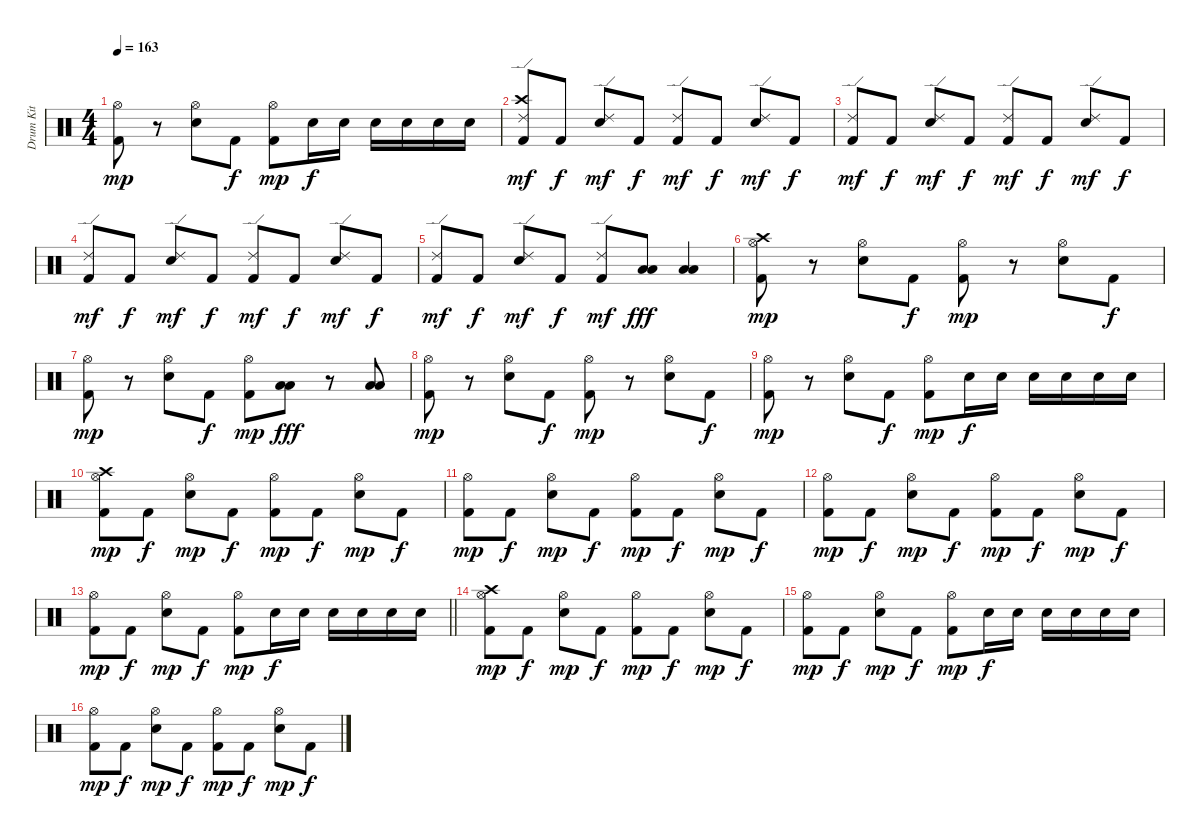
\track ("Drum Kit" "Drum Kit") {instrument percussion}
\staff {score}
\articulation defaults
\ts (4 4)
\tempo 163
\clef neutral
\ks c
("Hi-Hat (open)" "Kick (hit) 2").8{dy mp} r.8 ("Hi-Hat (open)" "Electric Snare (hit)").8 "Kick (hit) 2".8{dy f} ("Hi-Hat (open)" "Kick (hit) 2").8{dy mp} "Electric Snare (hit)".16{dy f} "Electric Snare (hit)".16 "Electric Snare (hit)".16 "Electric Snare (hit)".16 "Electric Snare (hit)".16 "Electric Snare (hit)".16 |
("Crash high (hit)" "Ride (edge) 2" "Kick (hit) 2").8{dy mf} "Kick (hit) 2".8{dy f} ("Ride (edge) 2" "Electric Snare (hit)").8{dy mf} "Kick (hit) 2".8{dy f} ("Ride (edge) 2" "Kick (hit) 2").8{dy mf} "Kick (hit) 2".8{dy f} ("Ride (edge) 2" "Electric Snare (hit)").8{dy mf} "Kick (hit) 2".8{dy f} |
("Ride (edge) 2" "Kick (hit) 2").8{dy mf} "Kick (hit) 2".8{dy f} ("Ride (edge) 2" "Electric Snare (hit)").8{dy mf} "Kick (hit) 2".8{dy f} ("Ride (edge) 2" "Kick (hit) 2").8{dy mf} "Kick (hit) 2".8{dy f} ("Ride (edge) 2" "Electric Snare (hit)").8{dy mf} "Kick (hit) 2".8{dy f} |
("Ride (edge) 2" "Kick (hit) 2").8{dy mf} "Kick (hit) 2".8{dy f} ("Ride (edge) 2" "Electric Snare (hit)").8{dy mf} "Kick (hit) 2".8{dy f} ("Ride (edge) 2" "Kick (hit) 2").8{dy mf} "Kick (hit) 2".8{dy f} ("Ride (edge) 2" "Electric Snare (hit)").8{dy mf} "Kick (hit) 2".8{dy f} |
("Ride (edge) 2" "Kick (hit) 2").8{dy mf} "Kick (hit) 2".8{dy f} ("Ride (edge) 2" "Electric Snare (hit)").8{dy mf} "Kick (hit) 2".8{dy f} ("Ride (edge) 2" "Kick (hit) 2").8{dy mf} ("Low Floor Tom (hit)" "Low Floor Tom (hit)").8{dy fff} ("Low Floor Tom (hit)" "Low Floor Tom (hit)").4 |
("Crash high (hit)" "Hi-Hat (open)" "Kick (hit) 2").8{dy mp} r.8 ("Hi-Hat (open)" "Electric Snare (hit)").8 "Kick (hit) 2".8{dy f} ("Hi-Hat (open)" "Kick (hit) 2").8{dy mp} r.8 ("Hi-Hat (open)" "Electric Snare (hit)").8 "Kick (hit) 2".8{dy f} |
("Hi-Hat (open)" "Kick (hit) 2").8{dy mp} r.8 ("Hi-Hat (open)" "Electric Snare (hit)").8 "Kick (hit) 2".8{dy f} ("Hi-Hat (open)" "Kick (hit) 2").8{dy mp} ("Low Floor Tom (hit)" "Low Floor Tom (hit)").8{dy fff} r.8 ("Low Floor Tom (hit)" "Low Floor Tom (hit)").8 |
("Hi-Hat (open)" "Kick (hit) 2").8{dy mp} r.8 ("Hi-Hat (open)" "Electric Snare (hit)").8 "Kick (hit) 2".8{dy f} ("Hi-Hat (open)" "Kick (hit) 2").8{dy mp} r.8 ("Hi-Hat (open)" "Electric Snare (hit)").8 "Kick (hit) 2".8{dy f} |
("Hi-Hat (open)" "Kick (hit) 2").8{dy mp} r.8 ("Hi-Hat (open)" "Electric Snare (hit)").8 "Kick (hit) 2".8{dy f} ("Hi-Hat (open)" "Kick (hit) 2").8{dy mp} "Electric Snare (hit)".16{dy f} "Electric Snare (hit)".16 "Electric Snare (hit)".16 "Electric Snare (hit)".16 "Electric Snare (hit)".16 "Electric Snare (hit)".16 |
("Crash high (hit)" "Hi-Hat (open)" "Kick (hit) 2").8{dy mp} "Kick (hit) 2".8{dy f} ("Hi-Hat (open)" "Electric Snare (hit)").8{dy mp} "Kick (hit) 2".8{dy f} ("Hi-Hat (open)" "Kick (hit) 2").8{dy mp} "Kick (hit) 2".8{dy f} ("Hi-Hat (open)" "Electric Snare (hit)").8{dy mp} "Kick (hit) 2".8{dy f} |
("Hi-Hat (open)" "Kick (hit) 2").8{dy mp} "Kick (hit) 2".8{dy f} ("Hi-Hat (open)" "Electric Snare (hit)").8{dy mp} "Kick (hit) 2".8{dy f} ("Hi-Hat (open)" "Kick (hit) 2").8{dy mp} "Kick (hit) 2".8{dy f} ("Hi-Hat (open)" "Electric Snare (hit)").8{dy mp} "Kick (hit) 2".8{dy f} |
("Hi-Hat (open)" "Kick (hit) 2").8{dy mp} "Kick (hit) 2".8{dy f} ("Hi-Hat (open)" "Electric Snare (hit)").8{dy mp} "Kick (hit) 2".8{dy f} ("Hi-Hat (open)" "Kick (hit) 2").8{dy mp} "Kick (hit) 2".8{dy f} ("Hi-Hat (open)" "Electric Snare (hit)").8{dy mp} "Kick (hit) 2".8{dy f} |
\barLineRight lightlight
("Hi-Hat (open)" "Kick (hit) 2").8{dy mp} "Kick (hit) 2".8{dy f} ("Hi-Hat (open)" "Electric Snare (hit)").8{dy mp} "Kick (hit) 2".8{dy f} ("Hi-Hat (open)" "Kick (hit) 2").8{dy mp} "Electric Snare (hit)".16{dy f} "Electric Snare (hit)".16 "Electric Snare (hit)".16 "Electric Snare (hit)".16 "Electric Snare (hit)".16 "Electric Snare (hit)".16 |
("Crash high (hit)" "Hi-Hat (open)" "Kick (hit) 2").8{dy mp} "Kick (hit) 2".8{dy f} ("Hi-Hat (open)" "Electric Snare (hit)").8{dy mp} "Kick (hit) 2".8{dy f} ("Hi-Hat (open)" "Kick (hit) 2").8{dy mp} "Kick (hit) 2".8{dy f} ("Hi-Hat (open)" "Electric Snare (hit)").8{dy mp} "Kick (hit) 2".8{dy f} |
("Hi-Hat (open)" "Kick (hit) 2").8{dy mp} "Kick (hit) 2".8{dy f} ("Hi-Hat (open)" "Electric Snare (hit)").8{dy mp} "Kick (hit) 2".8{dy f} ("Hi-Hat (open)" "Kick (hit) 2").8{dy mp} "Electric Snare (hit)".16{dy f} "Electric Snare (hit)".16 "Electric Snare (hit)".16 "Electric Snare (hit)".16 "Electric Snare (hit)".16 "Electric Snare (hit)".16 |
("Hi-Hat (open)" "Kick (hit) 2").8{dy mp} "Kick (hit) 2".8{dy f} ("Hi-Hat (open)" "Electric Snare (hit)").8{dy mp} "Kick (hit) 2".8{dy f} ("Hi-Hat (open)" "Kick (hit) 2").8{dy mp} "Kick (hit) 2".8{dy f} ("Hi-Hat (open)" "Electric Snare (hit)").8{dy mp} "Kick (hit) 2".8{dy f}
